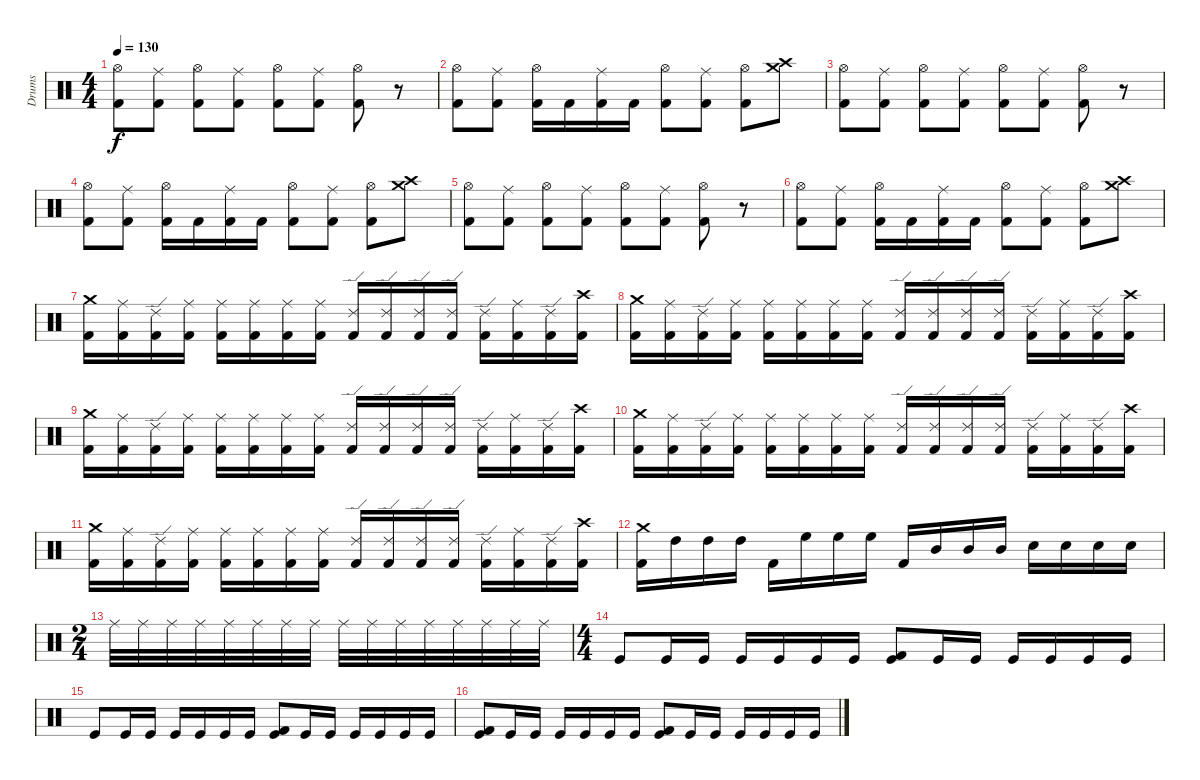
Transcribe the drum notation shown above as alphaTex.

\track ("Drums" "Drums") {instrument percussion}
\staff {score}
\articulation defaults
\ts (4 4)
\tempo 130
\clef neutral
\ks c
("Hi-Hat (open)" "Kick (hit) 2").8{dy f} ("Ride (middle)" "Kick (hit) 2").8 ("Hi-Hat (open)" "Kick (hit) 2").8 ("Ride (middle)" "Kick (hit) 2").8 ("Hi-Hat (open)" "Kick (hit) 2").8 ("Ride (middle)" "Kick (hit) 2").8 ("Hi-Hat (open)" "Kick (hit) 2").8 r.8 |
("Hi-Hat (open)" "Kick (hit) 2").8 ("Ride (middle)" "Kick (hit) 2").8 ("Hi-Hat (open)" "Kick (hit) 2").16 "Kick (hit) 2".16 ("Ride (middle)" "Kick (hit) 2").16 "Kick (hit) 2".16 ("Hi-Hat (open)" "Kick (hit) 2").8 ("Ride (middle)" "Kick (hit) 2").8 ("Hi-Hat (open)" "Kick (hit) 2").8 ("Crash high (hit)" "Crash medium (hit)").8 |
("Hi-Hat (open)" "Kick (hit) 2").8 ("Ride (middle)" "Kick (hit) 2").8 ("Hi-Hat (open)" "Kick (hit) 2").8 ("Ride (middle)" "Kick (hit) 2").8 ("Hi-Hat (open)" "Kick (hit) 2").8 ("Ride (middle)" "Kick (hit) 2").8 ("Hi-Hat (open)" "Kick (hit) 2").8 r.8 |
("Hi-Hat (open)" "Kick (hit) 2").8 ("Ride (middle)" "Kick (hit) 2").8 ("Hi-Hat (open)" "Kick (hit) 2").16 "Kick (hit) 2".16 ("Ride (middle)" "Kick (hit) 2").16 "Kick (hit) 2".16 ("Hi-Hat (open)" "Kick (hit) 2").8 ("Ride (middle)" "Kick (hit) 2").8 ("Hi-Hat (open)" "Kick (hit) 2").8 ("Crash high (hit)" "Crash medium (hit)").8 |
("Hi-Hat (open)" "Kick (hit) 2").8 ("Ride (middle)" "Kick (hit) 2").8 ("Hi-Hat (open)" "Kick (hit) 2").8 ("Ride (middle)" "Kick (hit) 2").8 ("Hi-Hat (open)" "Kick (hit) 2").8 ("Ride (middle)" "Kick (hit) 2").8 ("Hi-Hat (open)" "Kick (hit) 2").8 r.8 |
("Hi-Hat (open)" "Kick (hit) 2").8 ("Ride (middle)" "Kick (hit) 2").8 ("Hi-Hat (open)" "Kick (hit) 2").16 "Kick (hit) 2".16 ("Ride (middle)" "Kick (hit) 2").16 "Kick (hit) 2".16 ("Hi-Hat (open)" "Kick (hit) 2").8 ("Ride (middle)" "Kick (hit) 2").8 ("Hi-Hat (open)" "Kick (hit) 2").8 ("Crash high (hit)" "Crash medium (hit)").8 |
("Crash medium (hit)" "Kick (hit) 2").16 ("Ride (middle)" "Kick (hit) 2").16 ("Ride (edge) 2" "Kick (hit) 2").16 ("Ride (middle)" "Kick (hit) 2").16 ("Ride (middle)" "Kick (hit) 2").16 ("Ride (middle)" "Kick (hit) 2").16 ("Ride (middle)" "Kick (hit) 2").16 ("Ride (middle)" "Kick (hit) 2").16 ("Ride (edge) 2" "Kick (hit) 2").16 ("Ride (edge) 2" "Kick (hit) 2").16 ("Ride (edge) 2" "Kick (hit) 2").16 ("Ride (edge) 2" "Kick (hit) 2").16 ("Ride (edge) 2" "Kick (hit) 2").16 ("Ride (middle)" "Kick (hit) 2").16 ("Ride (edge) 2" "Kick (hit) 2").16 ("Crash high (hit)" "Kick (hit) 2").16 |
("Crash medium (hit)" "Kick (hit) 2").16 ("Ride (middle)" "Kick (hit) 2").16 ("Ride (edge) 2" "Kick (hit) 2").16 ("Ride (middle)" "Kick (hit) 2").16 ("Ride (middle)" "Kick (hit) 2").16 ("Ride (middle)" "Kick (hit) 2").16 ("Ride (middle)" "Kick (hit) 2").16 ("Ride (middle)" "Kick (hit) 2").16 ("Ride (edge) 2" "Kick (hit) 2").16 ("Ride (edge) 2" "Kick (hit) 2").16 ("Ride (edge) 2" "Kick (hit) 2").16 ("Ride (edge) 2" "Kick (hit) 2").16 ("Ride (edge) 2" "Kick (hit) 2").16 ("Ride (middle)" "Kick (hit) 2").16 ("Ride (edge) 2" "Kick (hit) 2").16 ("Crash high (hit)" "Kick (hit) 2").16 |
("Crash medium (hit)" "Kick (hit) 2").16 ("Ride (middle)" "Kick (hit) 2").16 ("Ride (edge) 2" "Kick (hit) 2").16 ("Ride (middle)" "Kick (hit) 2").16 ("Ride (middle)" "Kick (hit) 2").16 ("Ride (middle)" "Kick (hit) 2").16 ("Ride (middle)" "Kick (hit) 2").16 ("Ride (middle)" "Kick (hit) 2").16 ("Ride (edge) 2" "Kick (hit) 2").16 ("Ride (edge) 2" "Kick (hit) 2").16 ("Ride (edge) 2" "Kick (hit) 2").16 ("Ride (edge) 2" "Kick (hit) 2").16 ("Ride (edge) 2" "Kick (hit) 2").16 ("Ride (middle)" "Kick (hit) 2").16 ("Ride (edge) 2" "Kick (hit) 2").16 ("Crash high (hit)" "Kick (hit) 2").16 |
("Crash medium (hit)" "Kick (hit) 2").16 ("Ride (middle)" "Kick (hit) 2").16 ("Ride (edge) 2" "Kick (hit) 2").16 ("Ride (middle)" "Kick (hit) 2").16 ("Ride (middle)" "Kick (hit) 2").16 ("Ride (middle)" "Kick (hit) 2").16 ("Ride (middle)" "Kick (hit) 2").16 ("Ride (middle)" "Kick (hit) 2").16 ("Ride (edge) 2" "Kick (hit) 2").16 ("Ride (edge) 2" "Kick (hit) 2").16 ("Ride (edge) 2" "Kick (hit) 2").16 ("Ride (edge) 2" "Kick (hit) 2").16 ("Ride (edge) 2" "Kick (hit) 2").16 ("Ride (middle)" "Kick (hit) 2").16 ("Ride (edge) 2" "Kick (hit) 2").16 ("Crash high (hit)" "Kick (hit) 2").16 |
("Crash medium (hit)" "Kick (hit) 2").16 ("Ride (middle)" "Kick (hit) 2").16 ("Ride (edge) 2" "Kick (hit) 2").16 ("Ride (middle)" "Kick (hit) 2").16 ("Ride (middle)" "Kick (hit) 2").16 ("Ride (middle)" "Kick (hit) 2").16 ("Ride (middle)" "Kick (hit) 2").16 ("Ride (middle)" "Kick (hit) 2").16 ("Ride (edge) 2" "Kick (hit) 2").16 ("Ride (edge) 2" "Kick (hit) 2").16 ("Ride (edge) 2" "Kick (hit) 2").16 ("Ride (edge) 2" "Kick (hit) 2").16 ("Ride (edge) 2" "Kick (hit) 2").16 ("Ride (middle)" "Kick (hit) 2").16 ("Ride (edge) 2" "Kick (hit) 2").16 ("Crash high (hit)" "Kick (hit) 2").16 |
("Crash medium (hit)" "Kick (hit) 2").16 "High Tom (hit)".16 "High Tom (hit)".16 "High Tom (hit)".16 "Kick (hit) 2".16 "High Floor Tom (hit)".16 "High Floor Tom (hit)".16 "High Floor Tom (hit)".16 "Kick (hit) 2".16 "Mid Tom (hit)".16 "Mid Tom (hit)".16 "Mid Tom (hit)".16 "Electric Snare (hit)".16 "Electric Snare (hit)".16 "Electric Snare (hit)".16 "Electric Snare (hit)".16 |
\ts (2 4)
"Ride (middle)".32 "Ride (middle)".32 "Ride (middle)".32 "Ride (middle)".32 "Ride (middle)".32 "Ride (middle)".32 "Ride (middle)".32 "Ride (middle)".32 "Ride (middle)".32 "Ride (middle)".32 "Ride (middle)".32 "Ride (middle)".32 "Ride (middle)".32 "Ride (middle)".32 "Ride (middle)".32 "Ride (middle)".32 |
\ts (4 4)
"Kick (hit)".8 "Kick (hit)".16 "Kick (hit)".16 "Kick (hit)".16 "Kick (hit)".16 "Kick (hit)".16 "Kick (hit)".16 ("Kick (hit) 2" "Kick (hit)").8 "Kick (hit)".16 "Kick (hit)".16 "Kick (hit)".16 "Kick (hit)".16 "Kick (hit)".16 "Kick (hit)".16 |
"Kick (hit)".8 "Kick (hit)".16 "Kick (hit)".16 "Kick (hit)".16 "Kick (hit)".16 "Kick (hit)".16 "Kick (hit)".16 ("Kick (hit) 2" "Kick (hit)").8 "Kick (hit)".16 "Kick (hit)".16 "Kick (hit)".16 "Kick (hit)".16 "Kick (hit)".16 "Kick (hit)".16 |
("Kick (hit) 2" "Kick (hit)").8 "Kick (hit)".16 "Kick (hit)".16 "Kick (hit)".16 "Kick (hit)".16 "Kick (hit)".16 "Kick (hit)".16 ("Kick (hit) 2" "Kick (hit)").8 "Kick (hit)".16 "Kick (hit)".16 "Kick (hit)".16 "Kick (hit)".16 "Kick (hit)".16 "Kick (hit)".16
